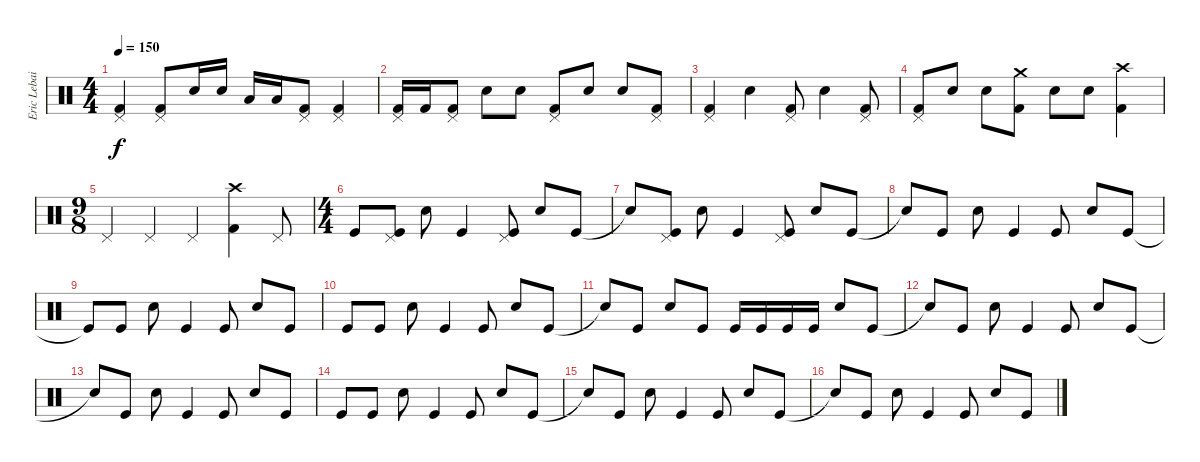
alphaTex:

\track ("Eric Lebailly - Drums" "Eric Lebai") {instrument percussion}
\staff {score}
\articulation defaults
\ts (4 4)
\tempo 150
\clef neutral
\ks c
("Pedal Hi-Hat (hit)" "Kick (hit) 2").4{dy f} ("Pedal Hi-Hat (hit)" "Kick (hit) 2").8 "Electric Snare (hit)".16 "Electric Snare (hit)".16 "Low Floor Tom (hit)".16 "Low Floor Tom (hit)".16 ("Pedal Hi-Hat (hit)" "Kick (hit) 2").8 ("Pedal Hi-Hat (hit)" "Kick (hit) 2").4 |
("Pedal Hi-Hat (hit)" "Kick (hit) 2").16 "Kick (hit) 2".16 ("Pedal Hi-Hat (hit)" "Kick (hit) 2").8 "Electric Snare (hit)".8 "Electric Snare (hit)".8 ("Pedal Hi-Hat (hit)" "Kick (hit) 2").8 "Electric Snare (hit)".8 "Electric Snare (hit)".8 ("Pedal Hi-Hat (hit)" "Kick (hit) 2").8 |
("Pedal Hi-Hat (hit)" "Kick (hit) 2").4 "Electric Snare (hit)".4 ("Pedal Hi-Hat (hit)" "Kick (hit) 2").8 "Electric Snare (hit)".4 ("Pedal Hi-Hat (hit)" "Kick (hit) 2").8 |
("Pedal Hi-Hat (hit)" "Kick (hit) 2").8 "Electric Snare (hit)".8 "Electric Snare (hit)".8 ("Crash medium (hit)" "Kick (hit) 2").8 "Electric Snare (hit)".8 "Electric Snare (hit)".8 ("Crash high (hit)" "Kick (hit) 2").4 |
\ts (9 8)
"Pedal Hi-Hat (hit)".4 "Pedal Hi-Hat (hit)".4 "Pedal Hi-Hat (hit)".4 ("Crash high (hit)" "Kick (hit) 2").4 "Pedal Hi-Hat (hit)".8 |
\ts (4 4)
"Kick (hit)".8 ("Pedal Hi-Hat (hit)" "Kick (hit)").8 "Snare (hit) 2".8 "Kick (hit)".4 ("Pedal Hi-Hat (hit)" "Kick (hit)").8 "Snare (hit) 2".8 "Kick (hit)".8 |
"Snare (hit)"{t}.8 ("Pedal Hi-Hat (hit)" "Kick (hit)").8 "Snare (hit) 2".8 "Kick (hit)".4 ("Pedal Hi-Hat (hit)" "Kick (hit)").8 "Snare (hit) 2".8 "Kick (hit)".8 |
"Snare (hit)"{t}.8 "Kick (hit)".8 "Snare (hit) 2".8 "Kick (hit)".4 "Kick (hit)".8 "Snare (hit) 2".8 "Kick (hit)".8 |
"Kick (hit)"{t}.8 "Kick (hit)".8 "Snare (hit) 2".8 "Kick (hit)".4 "Kick (hit)".8 "Snare (hit) 2".8 "Kick (hit)".8 |
"Kick (hit)".8 "Kick (hit)".8 "Snare (hit) 2".8 "Kick (hit)".4 "Kick (hit)".8 "Snare (hit) 2".8 "Kick (hit)".8 |
"Snare (hit)"{t}.8 "Kick (hit)".8 "Snare (hit) 2".8 "Kick (hit)".8 "Kick (hit)".16 "Kick (hit)".16 "Kick (hit)".16 "Kick (hit)".16 "Snare (hit) 2".8 "Kick (hit)".8 |
"Snare (hit)"{t}.8 "Kick (hit)".8 "Snare (hit) 2".8 "Kick (hit)".4 "Kick (hit)".8 "Snare (hit) 2".8 "Kick (hit)".8 |
"Snare (hit)"{t}.8 "Kick (hit)".8 "Snare (hit) 2".8 "Kick (hit)".4 "Kick (hit)".8 "Snare (hit) 2".8 "Kick (hit)".8 |
"Kick (hit)".8 "Kick (hit)".8 "Snare (hit) 2".8 "Kick (hit)".4 "Kick (hit)".8 "Snare (hit) 2".8 "Kick (hit)".8 |
"Snare (hit)"{t}.8 "Kick (hit)".8 "Snare (hit) 2".8 "Kick (hit)".4 "Kick (hit)".8 "Snare (hit) 2".8 "Kick (hit)".8 |
"Snare (hit)"{t}.8 "Kick (hit)".8 "Snare (hit) 2".8 "Kick (hit)".4 "Kick (hit)".8 "Snare (hit) 2".8 "Kick (hit)".8
